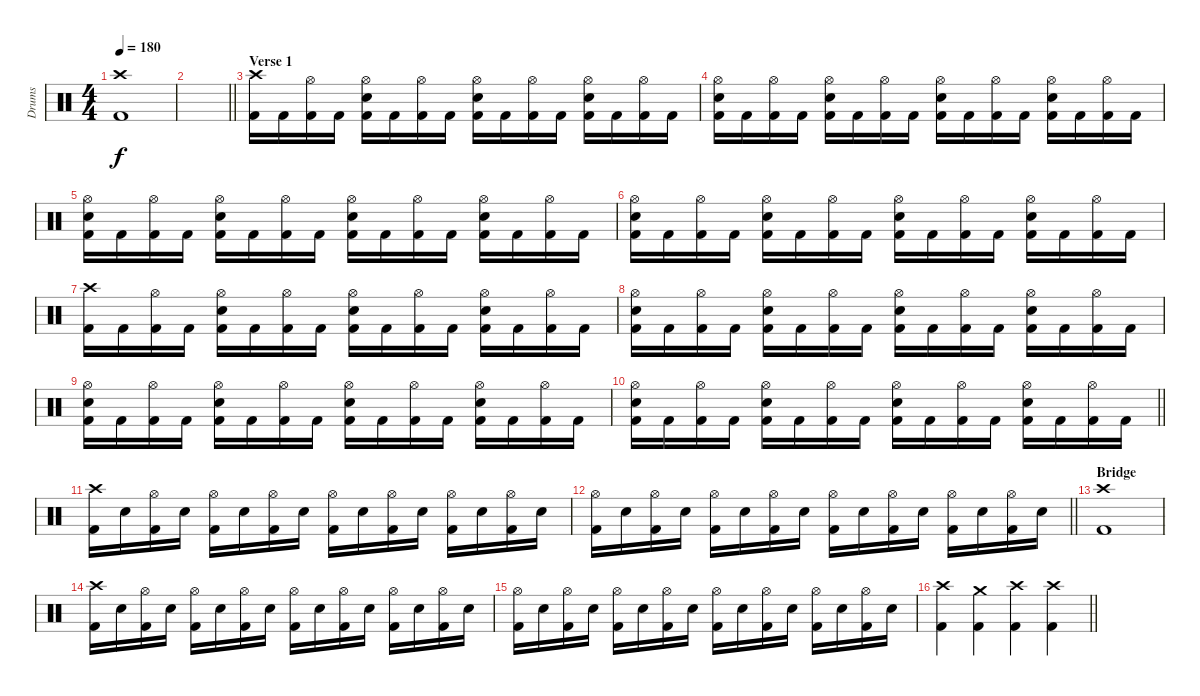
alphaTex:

\track ("Drums" "Drums") {instrument percussion}
\staff {score}
\articulation defaults
\ts (4 4)
\tempo 180
\clef neutral
\ks c
("Crash high (hit)" "Kick (hit) 2").1{dy f} |
\barLineRight lightlight
|
\section ("" "Verse 1")
("Crash high (hit)" "Kick (hit) 2").16 "Kick (hit) 2".16 ("Hi-Hat (open)" "Kick (hit) 2").16 "Kick (hit) 2".16 ("Hi-Hat (open)" "Electric Snare (hit)" "Kick (hit) 2").16 "Kick (hit) 2".16 ("Hi-Hat (open)" "Kick (hit) 2").16 "Kick (hit) 2".16 ("Hi-Hat (open)" "Electric Snare (hit)" "Kick (hit) 2").16 "Kick (hit) 2".16 ("Hi-Hat (open)" "Kick (hit) 2").16 "Kick (hit) 2".16 ("Hi-Hat (open)" "Electric Snare (hit)" "Kick (hit) 2").16 "Kick (hit) 2".16 ("Hi-Hat (open)" "Kick (hit) 2").16 "Kick (hit) 2".16 |
("Hi-Hat (open)" "Electric Snare (hit)" "Kick (hit) 2").16 "Kick (hit) 2".16 ("Hi-Hat (open)" "Kick (hit) 2").16 "Kick (hit) 2".16 ("Hi-Hat (open)" "Electric Snare (hit)" "Kick (hit) 2").16 "Kick (hit) 2".16 ("Hi-Hat (open)" "Kick (hit) 2").16 "Kick (hit) 2".16 ("Hi-Hat (open)" "Electric Snare (hit)" "Kick (hit) 2").16 "Kick (hit) 2".16 ("Hi-Hat (open)" "Kick (hit) 2").16 "Kick (hit) 2".16 ("Hi-Hat (open)" "Electric Snare (hit)" "Kick (hit) 2").16 "Kick (hit) 2".16 ("Hi-Hat (open)" "Kick (hit) 2").16 "Kick (hit) 2".16 |
("Hi-Hat (open)" "Electric Snare (hit)" "Kick (hit) 2").16 "Kick (hit) 2".16 ("Hi-Hat (open)" "Kick (hit) 2").16 "Kick (hit) 2".16 ("Hi-Hat (open)" "Electric Snare (hit)" "Kick (hit) 2").16 "Kick (hit) 2".16 ("Hi-Hat (open)" "Kick (hit) 2").16 "Kick (hit) 2".16 ("Hi-Hat (open)" "Electric Snare (hit)" "Kick (hit) 2").16 "Kick (hit) 2".16 ("Hi-Hat (open)" "Kick (hit) 2").16 "Kick (hit) 2".16 ("Hi-Hat (open)" "Electric Snare (hit)" "Kick (hit) 2").16 "Kick (hit) 2".16 ("Hi-Hat (open)" "Kick (hit) 2").16 "Kick (hit) 2".16 |
("Hi-Hat (open)" "Electric Snare (hit)" "Kick (hit) 2").16 "Kick (hit) 2".16 ("Hi-Hat (open)" "Kick (hit) 2").16 "Kick (hit) 2".16 ("Hi-Hat (open)" "Electric Snare (hit)" "Kick (hit) 2").16 "Kick (hit) 2".16 ("Hi-Hat (open)" "Kick (hit) 2").16 "Kick (hit) 2".16 ("Hi-Hat (open)" "Electric Snare (hit)" "Kick (hit) 2").16 "Kick (hit) 2".16 ("Hi-Hat (open)" "Kick (hit) 2").16 "Kick (hit) 2".16 ("Hi-Hat (open)" "Electric Snare (hit)" "Kick (hit) 2").16 "Kick (hit) 2".16 ("Hi-Hat (open)" "Kick (hit) 2").16 "Kick (hit) 2".16 |
("Crash high (hit)" "Kick (hit) 2").16 "Kick (hit) 2".16 ("Hi-Hat (open)" "Kick (hit) 2").16 "Kick (hit) 2".16 ("Hi-Hat (open)" "Electric Snare (hit)" "Kick (hit) 2").16 "Kick (hit) 2".16 ("Hi-Hat (open)" "Kick (hit) 2").16 "Kick (hit) 2".16 ("Hi-Hat (open)" "Electric Snare (hit)" "Kick (hit) 2").16 "Kick (hit) 2".16 ("Hi-Hat (open)" "Kick (hit) 2").16 "Kick (hit) 2".16 ("Hi-Hat (open)" "Electric Snare (hit)" "Kick (hit) 2").16 "Kick (hit) 2".16 ("Hi-Hat (open)" "Kick (hit) 2").16 "Kick (hit) 2".16 |
("Hi-Hat (open)" "Electric Snare (hit)" "Kick (hit) 2").16 "Kick (hit) 2".16 ("Hi-Hat (open)" "Kick (hit) 2").16 "Kick (hit) 2".16 ("Hi-Hat (open)" "Electric Snare (hit)" "Kick (hit) 2").16 "Kick (hit) 2".16 ("Hi-Hat (open)" "Kick (hit) 2").16 "Kick (hit) 2".16 ("Hi-Hat (open)" "Electric Snare (hit)" "Kick (hit) 2").16 "Kick (hit) 2".16 ("Hi-Hat (open)" "Kick (hit) 2").16 "Kick (hit) 2".16 ("Hi-Hat (open)" "Electric Snare (hit)" "Kick (hit) 2").16 "Kick (hit) 2".16 ("Hi-Hat (open)" "Kick (hit) 2").16 "Kick (hit) 2".16 |
("Hi-Hat (open)" "Electric Snare (hit)" "Kick (hit) 2").16 "Kick (hit) 2".16 ("Hi-Hat (open)" "Kick (hit) 2").16 "Kick (hit) 2".16 ("Hi-Hat (open)" "Electric Snare (hit)" "Kick (hit) 2").16 "Kick (hit) 2".16 ("Hi-Hat (open)" "Kick (hit) 2").16 "Kick (hit) 2".16 ("Hi-Hat (open)" "Electric Snare (hit)" "Kick (hit) 2").16 "Kick (hit) 2".16 ("Hi-Hat (open)" "Kick (hit) 2").16 "Kick (hit) 2".16 ("Hi-Hat (open)" "Electric Snare (hit)" "Kick (hit) 2").16 "Kick (hit) 2".16 ("Hi-Hat (open)" "Kick (hit) 2").16 "Kick (hit) 2".16 |
\barLineRight lightlight
("Hi-Hat (open)" "Electric Snare (hit)" "Kick (hit) 2").16 "Kick (hit) 2".16 ("Hi-Hat (open)" "Kick (hit) 2").16 "Kick (hit) 2".16 ("Hi-Hat (open)" "Electric Snare (hit)" "Kick (hit) 2").16 "Kick (hit) 2".16 ("Hi-Hat (open)" "Kick (hit) 2").16 "Kick (hit) 2".16 ("Hi-Hat (open)" "Electric Snare (hit)" "Kick (hit) 2").16 "Kick (hit) 2".16 ("Hi-Hat (open)" "Kick (hit) 2").16 "Kick (hit) 2".16 ("Hi-Hat (open)" "Electric Snare (hit)" "Kick (hit) 2").16 "Kick (hit) 2".16 ("Hi-Hat (open)" "Kick (hit) 2").16 "Kick (hit) 2".16 |
\section ("" "")
("Crash high (hit)" "Kick (hit) 2").16 "Electric Snare (hit)".16 ("Hi-Hat (open)" "Kick (hit) 2").16 "Electric Snare (hit)".16 ("Hi-Hat (open)" "Kick (hit) 2").16 "Electric Snare (hit)".16 ("Hi-Hat (open)" "Kick (hit) 2").16 "Electric Snare (hit)".16 ("Hi-Hat (open)" "Kick (hit) 2").16 "Electric Snare (hit)".16 ("Hi-Hat (open)" "Kick (hit) 2").16 "Electric Snare (hit)".16 ("Hi-Hat (open)" "Kick (hit) 2").16 "Electric Snare (hit)".16 ("Hi-Hat (open)" "Kick (hit) 2").16 "Electric Snare (hit)".16 |
\barLineRight lightlight
("Hi-Hat (open)" "Kick (hit) 2").16 "Electric Snare (hit)".16 ("Hi-Hat (open)" "Kick (hit) 2").16 "Electric Snare (hit)".16 ("Hi-Hat (open)" "Kick (hit) 2").16 "Electric Snare (hit)".16 ("Hi-Hat (open)" "Kick (hit) 2").16 "Electric Snare (hit)".16 ("Hi-Hat (open)" "Kick (hit) 2").16 "Electric Snare (hit)".16 ("Hi-Hat (open)" "Kick (hit) 2").16 "Electric Snare (hit)".16 ("Hi-Hat (open)" "Kick (hit) 2").16 "Electric Snare (hit)".16 ("Hi-Hat (open)" "Kick (hit) 2").16 "Electric Snare (hit)".16 |
\section ("" "Bridge")
("Crash high (hit)" "Kick (hit) 2").1 |
("Crash high (hit)" "Kick (hit) 2").16 "Electric Snare (hit)".16 ("Hi-Hat (open)" "Kick (hit) 2").16 "Electric Snare (hit)".16 ("Hi-Hat (open)" "Kick (hit) 2").16 "Electric Snare (hit)".16 ("Hi-Hat (open)" "Kick (hit) 2").16 "Electric Snare (hit)".16 ("Hi-Hat (open)" "Kick (hit) 2").16 "Electric Snare (hit)".16 ("Hi-Hat (open)" "Kick (hit) 2").16 "Electric Snare (hit)".16 ("Hi-Hat (open)" "Kick (hit) 2").16 "Electric Snare (hit)".16 ("Hi-Hat (open)" "Kick (hit) 2").16 "Electric Snare (hit)".16 |
("Hi-Hat (open)" "Kick (hit) 2").16 "Electric Snare (hit)".16 ("Hi-Hat (open)" "Kick (hit) 2").16 "Electric Snare (hit)".16 ("Hi-Hat (open)" "Kick (hit) 2").16 "Electric Snare (hit)".16 ("Hi-Hat (open)" "Kick (hit) 2").16 "Electric Snare (hit)".16 ("Hi-Hat (open)" "Kick (hit) 2").16 "Electric Snare (hit)".16 ("Hi-Hat (open)" "Kick (hit) 2").16 "Electric Snare (hit)".16 ("Hi-Hat (open)" "Kick (hit) 2").16 "Electric Snare (hit)".16 ("Hi-Hat (open)" "Kick (hit) 2").16 "Electric Snare (hit)".16 |
\barLineRight lightlight
("Crash high (hit)" "Kick (hit) 2").4 ("Crash medium (hit)" "Kick (hit) 2").4 ("Crash high (hit)" "Kick (hit) 2").4 ("Crash high (hit)" "Kick (hit) 2").4
